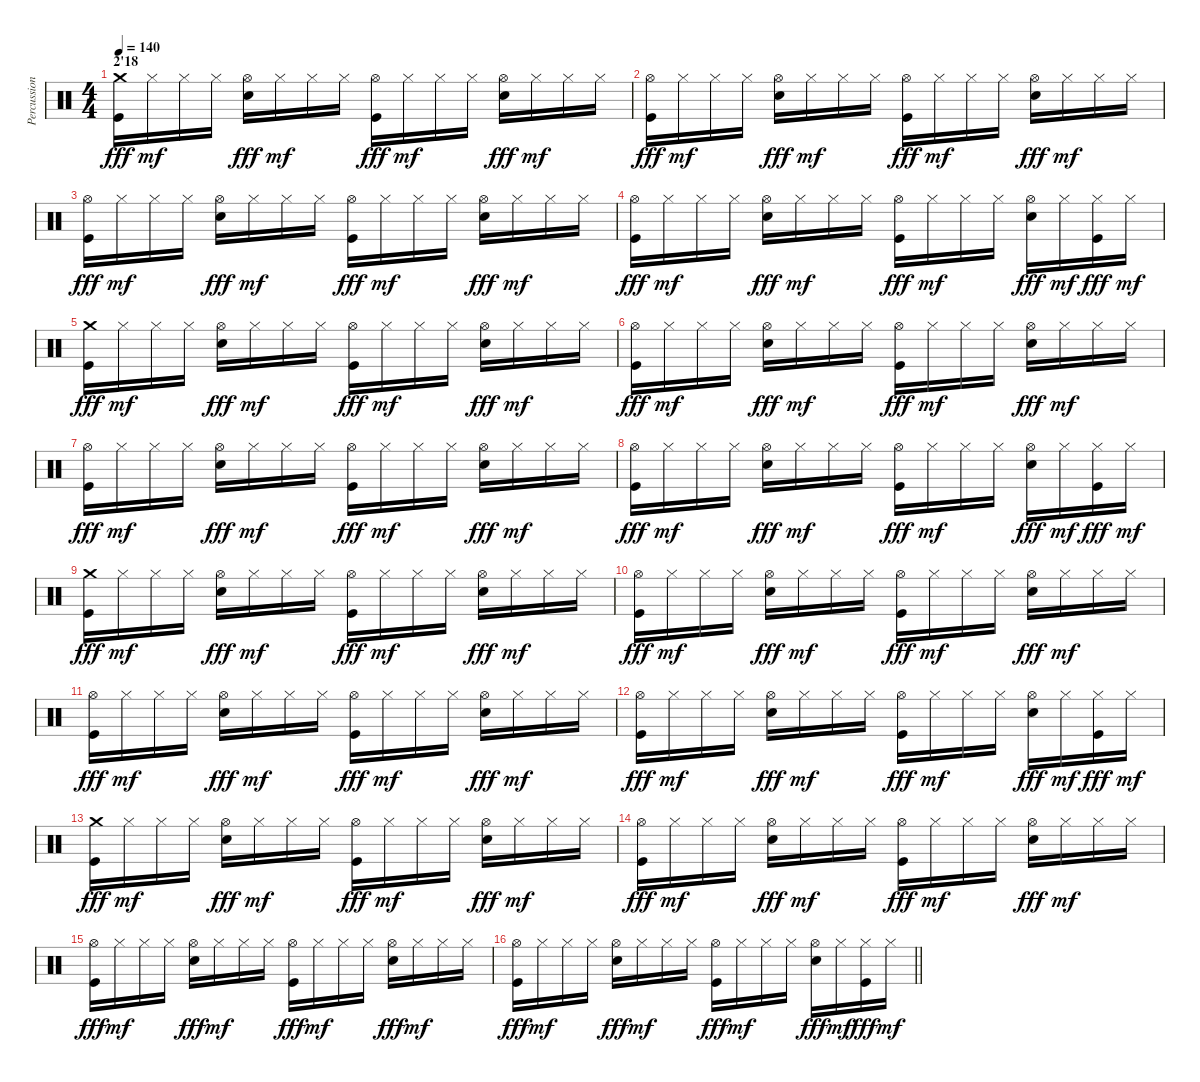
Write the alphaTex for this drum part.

\track ("Percussions" "Percussion") {instrument percussion}
\staff {score}
\articulation defaults
\ts (4 4)
\section ("" "2'18")
\tempo 140
\clef neutral
\ks c
("Crash medium (hit)" "Kick (hit)").16{dy fff} "Hi-Hat (closed)".16{dy mf} "Hi-Hat (closed)".16 "Hi-Hat (closed)".16 ("Hi-Hat (open)" "Electric Snare (hit)").16{dy fff} "Hi-Hat (closed)".16{dy mf} "Hi-Hat (closed)".16 "Hi-Hat (closed)".16 ("Hi-Hat (open)" "Kick (hit)").16{dy fff} "Hi-Hat (closed)".16{dy mf} "Hi-Hat (closed)".16 "Hi-Hat (closed)".16 ("Hi-Hat (open)" "Electric Snare (hit)").16{dy fff} "Hi-Hat (closed)".16{dy mf} "Hi-Hat (closed)".16 "Hi-Hat (closed)".16 |
("Hi-Hat (open)" "Kick (hit)").16{dy fff} "Hi-Hat (closed)".16{dy mf} "Hi-Hat (closed)".16 "Hi-Hat (closed)".16 ("Hi-Hat (open)" "Electric Snare (hit)").16{dy fff} "Hi-Hat (closed)".16{dy mf} "Hi-Hat (closed)".16 "Hi-Hat (closed)".16 ("Hi-Hat (open)" "Kick (hit)").16{dy fff} "Hi-Hat (closed)".16{dy mf} "Hi-Hat (closed)".16 "Hi-Hat (closed)".16 ("Hi-Hat (open)" "Electric Snare (hit)").16{dy fff} "Hi-Hat (closed)".16{dy mf} "Hi-Hat (closed)".16 "Hi-Hat (closed)".16 |
("Hi-Hat (open)" "Kick (hit)").16{dy fff} "Hi-Hat (closed)".16{dy mf} "Hi-Hat (closed)".16 "Hi-Hat (closed)".16 ("Hi-Hat (open)" "Electric Snare (hit)").16{dy fff} "Hi-Hat (closed)".16{dy mf} "Hi-Hat (closed)".16 "Hi-Hat (closed)".16 ("Hi-Hat (open)" "Kick (hit)").16{dy fff} "Hi-Hat (closed)".16{dy mf} "Hi-Hat (closed)".16 "Hi-Hat (closed)".16 ("Hi-Hat (open)" "Electric Snare (hit)").16{dy fff} "Hi-Hat (closed)".16{dy mf} "Hi-Hat (closed)".16 "Hi-Hat (closed)".16 |
("Hi-Hat (open)" "Kick (hit)").16{dy fff} "Hi-Hat (closed)".16{dy mf} "Hi-Hat (closed)".16 "Hi-Hat (closed)".16 ("Hi-Hat (open)" "Electric Snare (hit)").16{dy fff} "Hi-Hat (closed)".16{dy mf} "Hi-Hat (closed)".16 "Hi-Hat (closed)".16 ("Hi-Hat (open)" "Kick (hit)").16{dy fff} "Hi-Hat (closed)".16{dy mf} "Hi-Hat (closed)".16 "Hi-Hat (closed)".16 ("Hi-Hat (open)" "Electric Snare (hit)").16{dy fff} "Hi-Hat (closed)".16{dy mf} ("Hi-Hat (closed)" "Kick (hit)").16{dy fff} "Hi-Hat (closed)".16{dy mf} |
("Crash medium (hit)" "Kick (hit)").16{dy fff} "Hi-Hat (closed)".16{dy mf} "Hi-Hat (closed)".16 "Hi-Hat (closed)".16 ("Hi-Hat (open)" "Electric Snare (hit)").16{dy fff} "Hi-Hat (closed)".16{dy mf} "Hi-Hat (closed)".16 "Hi-Hat (closed)".16 ("Hi-Hat (open)" "Kick (hit)").16{dy fff} "Hi-Hat (closed)".16{dy mf} "Hi-Hat (closed)".16 "Hi-Hat (closed)".16 ("Hi-Hat (open)" "Electric Snare (hit)").16{dy fff} "Hi-Hat (closed)".16{dy mf} "Hi-Hat (closed)".16 "Hi-Hat (closed)".16 |
("Hi-Hat (open)" "Kick (hit)").16{dy fff} "Hi-Hat (closed)".16{dy mf} "Hi-Hat (closed)".16 "Hi-Hat (closed)".16 ("Hi-Hat (open)" "Electric Snare (hit)").16{dy fff} "Hi-Hat (closed)".16{dy mf} "Hi-Hat (closed)".16 "Hi-Hat (closed)".16 ("Hi-Hat (open)" "Kick (hit)").16{dy fff} "Hi-Hat (closed)".16{dy mf} "Hi-Hat (closed)".16 "Hi-Hat (closed)".16 ("Hi-Hat (open)" "Electric Snare (hit)").16{dy fff} "Hi-Hat (closed)".16{dy mf} "Hi-Hat (closed)".16 "Hi-Hat (closed)".16 |
("Hi-Hat (open)" "Kick (hit)").16{dy fff} "Hi-Hat (closed)".16{dy mf} "Hi-Hat (closed)".16 "Hi-Hat (closed)".16 ("Hi-Hat (open)" "Electric Snare (hit)").16{dy fff} "Hi-Hat (closed)".16{dy mf} "Hi-Hat (closed)".16 "Hi-Hat (closed)".16 ("Hi-Hat (open)" "Kick (hit)").16{dy fff} "Hi-Hat (closed)".16{dy mf} "Hi-Hat (closed)".16 "Hi-Hat (closed)".16 ("Hi-Hat (open)" "Electric Snare (hit)").16{dy fff} "Hi-Hat (closed)".16{dy mf} "Hi-Hat (closed)".16 "Hi-Hat (closed)".16 |
("Hi-Hat (open)" "Kick (hit)").16{dy fff} "Hi-Hat (closed)".16{dy mf} "Hi-Hat (closed)".16 "Hi-Hat (closed)".16 ("Hi-Hat (open)" "Electric Snare (hit)").16{dy fff} "Hi-Hat (closed)".16{dy mf} "Hi-Hat (closed)".16 "Hi-Hat (closed)".16 ("Hi-Hat (open)" "Kick (hit)").16{dy fff} "Hi-Hat (closed)".16{dy mf} "Hi-Hat (closed)".16 "Hi-Hat (closed)".16 ("Hi-Hat (open)" "Electric Snare (hit)").16{dy fff} "Hi-Hat (closed)".16{dy mf} ("Hi-Hat (closed)" "Kick (hit)").16{dy fff} "Hi-Hat (closed)".16{dy mf} |
("Crash medium (hit)" "Kick (hit)").16{dy fff} "Hi-Hat (closed)".16{dy mf} "Hi-Hat (closed)".16 "Hi-Hat (closed)".16 ("Hi-Hat (open)" "Electric Snare (hit)").16{dy fff} "Hi-Hat (closed)".16{dy mf} "Hi-Hat (closed)".16 "Hi-Hat (closed)".16 ("Hi-Hat (open)" "Kick (hit)").16{dy fff} "Hi-Hat (closed)".16{dy mf} "Hi-Hat (closed)".16 "Hi-Hat (closed)".16 ("Hi-Hat (open)" "Electric Snare (hit)").16{dy fff} "Hi-Hat (closed)".16{dy mf} "Hi-Hat (closed)".16 "Hi-Hat (closed)".16 |
("Hi-Hat (open)" "Kick (hit)").16{dy fff} "Hi-Hat (closed)".16{dy mf} "Hi-Hat (closed)".16 "Hi-Hat (closed)".16 ("Hi-Hat (open)" "Electric Snare (hit)").16{dy fff} "Hi-Hat (closed)".16{dy mf} "Hi-Hat (closed)".16 "Hi-Hat (closed)".16 ("Hi-Hat (open)" "Kick (hit)").16{dy fff} "Hi-Hat (closed)".16{dy mf} "Hi-Hat (closed)".16 "Hi-Hat (closed)".16 ("Hi-Hat (open)" "Electric Snare (hit)").16{dy fff} "Hi-Hat (closed)".16{dy mf} "Hi-Hat (closed)".16 "Hi-Hat (closed)".16 |
("Hi-Hat (open)" "Kick (hit)").16{dy fff} "Hi-Hat (closed)".16{dy mf} "Hi-Hat (closed)".16 "Hi-Hat (closed)".16 ("Hi-Hat (open)" "Electric Snare (hit)").16{dy fff} "Hi-Hat (closed)".16{dy mf} "Hi-Hat (closed)".16 "Hi-Hat (closed)".16 ("Hi-Hat (open)" "Kick (hit)").16{dy fff} "Hi-Hat (closed)".16{dy mf} "Hi-Hat (closed)".16 "Hi-Hat (closed)".16 ("Hi-Hat (open)" "Electric Snare (hit)").16{dy fff} "Hi-Hat (closed)".16{dy mf} "Hi-Hat (closed)".16 "Hi-Hat (closed)".16 |
("Hi-Hat (open)" "Kick (hit)").16{dy fff} "Hi-Hat (closed)".16{dy mf} "Hi-Hat (closed)".16 "Hi-Hat (closed)".16 ("Hi-Hat (open)" "Electric Snare (hit)").16{dy fff} "Hi-Hat (closed)".16{dy mf} "Hi-Hat (closed)".16 "Hi-Hat (closed)".16 ("Hi-Hat (open)" "Kick (hit)").16{dy fff} "Hi-Hat (closed)".16{dy mf} "Hi-Hat (closed)".16 "Hi-Hat (closed)".16 ("Hi-Hat (open)" "Electric Snare (hit)").16{dy fff} "Hi-Hat (closed)".16{dy mf} ("Hi-Hat (closed)" "Kick (hit)").16{dy fff} "Hi-Hat (closed)".16{dy mf} |
("Crash medium (hit)" "Kick (hit)").16{dy fff} "Hi-Hat (closed)".16{dy mf} "Hi-Hat (closed)".16 "Hi-Hat (closed)".16 ("Hi-Hat (open)" "Electric Snare (hit)").16{dy fff} "Hi-Hat (closed)".16{dy mf} "Hi-Hat (closed)".16 "Hi-Hat (closed)".16 ("Hi-Hat (open)" "Kick (hit)").16{dy fff} "Hi-Hat (closed)".16{dy mf} "Hi-Hat (closed)".16 "Hi-Hat (closed)".16 ("Hi-Hat (open)" "Electric Snare (hit)").16{dy fff} "Hi-Hat (closed)".16{dy mf} "Hi-Hat (closed)".16 "Hi-Hat (closed)".16 |
("Hi-Hat (open)" "Kick (hit)").16{dy fff} "Hi-Hat (closed)".16{dy mf} "Hi-Hat (closed)".16 "Hi-Hat (closed)".16 ("Hi-Hat (open)" "Electric Snare (hit)").16{dy fff} "Hi-Hat (closed)".16{dy mf} "Hi-Hat (closed)".16 "Hi-Hat (closed)".16 ("Hi-Hat (open)" "Kick (hit)").16{dy fff} "Hi-Hat (closed)".16{dy mf} "Hi-Hat (closed)".16 "Hi-Hat (closed)".16 ("Hi-Hat (open)" "Electric Snare (hit)").16{dy fff} "Hi-Hat (closed)".16{dy mf} "Hi-Hat (closed)".16 "Hi-Hat (closed)".16 |
("Hi-Hat (open)" "Kick (hit)").16{dy fff} "Hi-Hat (closed)".16{dy mf} "Hi-Hat (closed)".16 "Hi-Hat (closed)".16 ("Hi-Hat (open)" "Electric Snare (hit)").16{dy fff} "Hi-Hat (closed)".16{dy mf} "Hi-Hat (closed)".16 "Hi-Hat (closed)".16 ("Hi-Hat (open)" "Kick (hit)").16{dy fff} "Hi-Hat (closed)".16{dy mf} "Hi-Hat (closed)".16 "Hi-Hat (closed)".16 ("Hi-Hat (open)" "Electric Snare (hit)").16{dy fff} "Hi-Hat (closed)".16{dy mf} "Hi-Hat (closed)".16 "Hi-Hat (closed)".16 |
\barLineRight lightlight
("Hi-Hat (open)" "Kick (hit)").16{dy fff} "Hi-Hat (closed)".16{dy mf} "Hi-Hat (closed)".16 "Hi-Hat (closed)".16 ("Hi-Hat (open)" "Electric Snare (hit)").16{dy fff} "Hi-Hat (closed)".16{dy mf} "Hi-Hat (closed)".16 "Hi-Hat (closed)".16 ("Hi-Hat (open)" "Kick (hit)").16{dy fff} "Hi-Hat (closed)".16{dy mf} "Hi-Hat (closed)".16 "Hi-Hat (closed)".16 ("Hi-Hat (open)" "Electric Snare (hit)").16{dy fff} "Hi-Hat (closed)".16{dy mf} ("Hi-Hat (closed)" "Kick (hit)").16{dy fff} "Hi-Hat (closed)".16{dy mf}
